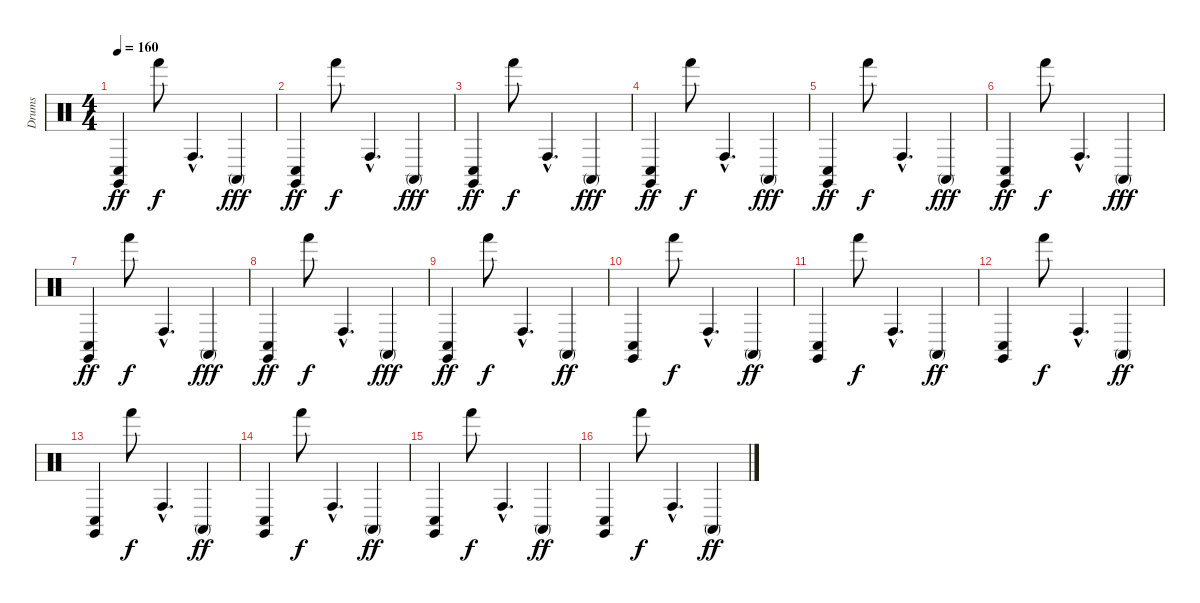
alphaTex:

\track ("Drums" "Drums") {instrument percussion}
\staff {score}
\articulation defaults
\ts (4 4)
\tempo 160
\clef neutral
\ks c
("Claves (hit)" "Conga low (hit)").4{dy ff} "Hand (hit)".8{dy f} "Conga high (hit)"{hac}.4{d} "Conga high (mute)".4{dy fff} |
("Claves (hit)" "Conga low (hit)").4{dy ff} "Hand (hit)".8{dy f} "Conga high (hit)"{hac}.4{d} "Conga high (mute)".4{dy fff} |
("Claves (hit)" "Conga low (hit)").4{dy ff} "Hand (hit)".8{dy f} "Conga high (hit)"{hac}.4{d} "Conga high (mute)".4{dy fff} |
("Claves (hit)" "Conga low (hit)").4{dy ff} "Hand (hit)".8{dy f} "Conga high (hit)"{hac}.4{d} "Conga high (mute)".4{dy fff} |
("Claves (hit)" "Conga low (hit)").4{dy ff} "Hand (hit)".8{dy f} "Conga high (hit)"{hac}.4{d} "Conga high (mute)".4{dy fff} |
("Claves (hit)" "Conga low (hit)").4{dy ff} "Hand (hit)".8{dy f} "Conga high (hit)"{hac}.4{d} "Conga high (mute)".4{dy fff} |
("Claves (hit)" "Conga low (hit)").4{dy ff} "Hand (hit)".8{dy f} "Conga high (hit)"{hac}.4{d} "Conga high (mute)".4{dy fff} |
("Claves (hit)" "Conga low (hit)").4{dy ff} "Hand (hit)".8{dy f} "Conga high (hit)"{hac}.4{d} "Conga high (mute)".4{dy fff} |
("Conga low (hit)" "Claves (hit)").4{dy ff} "Hand (hit)".8{dy f} "Conga high (hit)"{hac}.4{d} "Conga high (mute)".4{dy ff} |
("Conga low (hit)" "Claves (hit)").4 "Hand (hit)".8{dy f} "Conga high (hit)"{hac}.4{d} "Conga high (mute)".4{dy ff} |
("Conga low (hit)" "Claves (hit)").4 "Hand (hit)".8{dy f} "Conga high (hit)"{hac}.4{d} "Conga high (mute)".4{dy ff} |
("Conga low (hit)" "Claves (hit)").4 "Hand (hit)".8{dy f} "Conga high (hit)"{hac}.4{d} "Conga high (mute)".4{dy ff} |
("Conga low (hit)" "Claves (hit)").4 "Hand (hit)".8{dy f} "Conga high (hit)"{hac}.4{d} "Conga high (mute)".4{dy ff} |
("Conga low (hit)" "Claves (hit)").4 "Hand (hit)".8{dy f} "Conga high (hit)"{hac}.4{d} "Conga high (mute)".4{dy ff} |
("Conga low (hit)" "Claves (hit)").4 "Hand (hit)".8{dy f} "Conga high (hit)"{hac}.4{d} "Conga high (mute)".4{dy ff} |
("Conga low (hit)" "Claves (hit)").4 "Hand (hit)".8{dy f} "Conga high (hit)"{hac}.4{d} "Conga high (mute)".4{dy ff}
